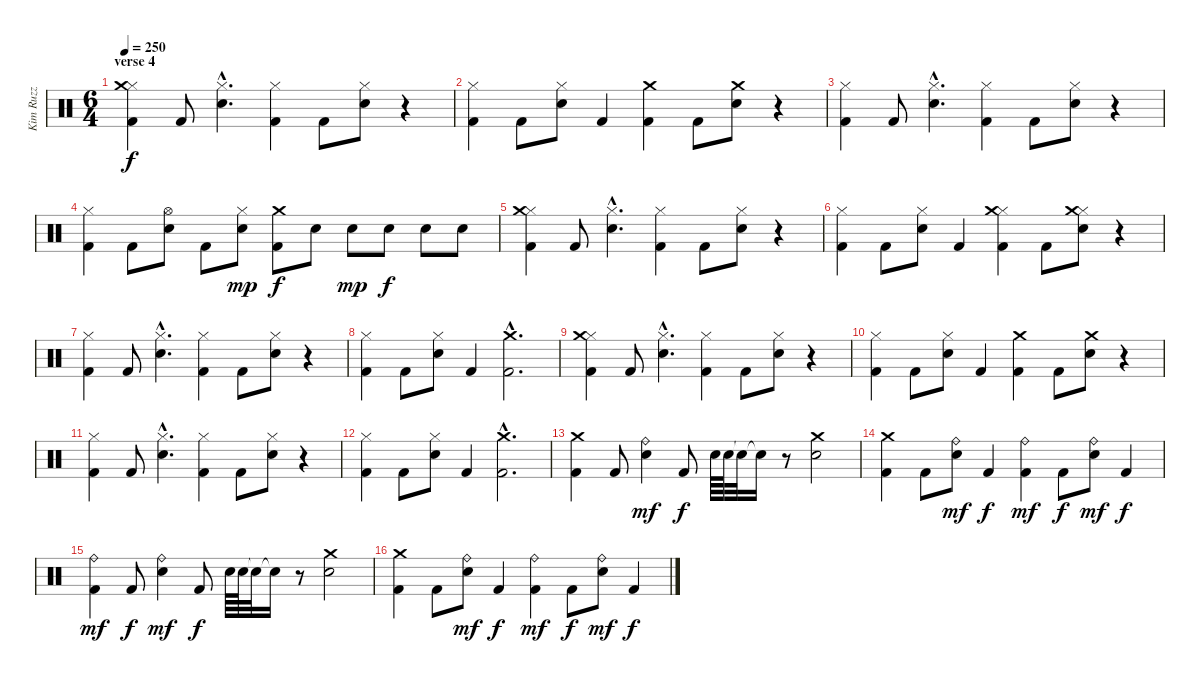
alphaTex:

\track ("Kim Ruzz" "Kim Ruzz") {instrument percussion}
\staff {score}
\articulation defaults
\ts (6 4)
\section ("" "verse 4")
\tempo 250
\clef neutral
\ks c
("Kick (hit) 2" "Hi-Hat (closed)" "Crash medium (hit)").4{dy f} "Kick (hit) 2".8 ("Hi-Hat (closed)"{hac} "Snare (hit) 2"{hac}).4{d} ("Kick (hit) 2" "Hi-Hat (closed)").4 "Kick (hit) 2".8 ("Hi-Hat (closed)" "Snare (hit) 2").8 r.4 |
("Kick (hit) 2" "Hi-Hat (closed)").4 "Kick (hit) 2".8 ("Hi-Hat (closed)" "Snare (hit) 2").8 "Kick (hit) 2".4 ("Kick (hit) 2" "Crash medium (hit)").4 "Kick (hit) 2".8 ("Crash medium (hit)" "Snare (hit) 2").8 r.4 |
("Kick (hit) 2" "Hi-Hat (closed)").4 "Kick (hit) 2".8 ("Hi-Hat (closed)"{hac} "Snare (hit) 2"{hac}).4{d} ("Kick (hit) 2" "Hi-Hat (closed)").4 "Kick (hit) 2".8 ("Hi-Hat (closed)" "Snare (hit) 2").8 r.4 |
("Kick (hit) 2" "Hi-Hat (closed)").4 "Kick (hit) 2".8 ("Hi-Hat (open)" "Snare (hit) 2").8 "Kick (hit) 2".8 ("Hi-Hat (closed)" "Snare (hit) 2").8{dy mp} ("Kick (hit) 2" "Crash medium (hit)").8{dy f} "Snare (hit) 2".8 "Snare (hit) 2".8{dy mp} "Snare (hit) 2".8{dy f} "Snare (hit) 2".8 "Snare (hit) 2".8 |
("Kick (hit) 2" "Hi-Hat (closed)" "Crash medium (hit)").4 "Kick (hit) 2".8 ("Hi-Hat (closed)"{hac} "Snare (hit) 2"{hac}).4{d} ("Kick (hit) 2" "Hi-Hat (closed)").4 "Kick (hit) 2".8 ("Hi-Hat (closed)" "Snare (hit) 2").8 r.4 |
("Kick (hit) 2" "Hi-Hat (closed)").4 "Kick (hit) 2".8 ("Hi-Hat (closed)" "Snare (hit) 2").8 "Kick (hit) 2".4 ("Kick (hit) 2" "Hi-Hat (closed)" "Crash medium (hit)").4 "Kick (hit) 2".8 ("Hi-Hat (closed)" "Crash medium (hit)" "Snare (hit) 2").8 r.4 |
("Kick (hit) 2" "Hi-Hat (closed)").4 "Kick (hit) 2".8 ("Hi-Hat (closed)"{hac} "Snare (hit) 2"{hac}).4{d} ("Kick (hit) 2" "Hi-Hat (closed)").4 "Kick (hit) 2".8 ("Hi-Hat (closed)" "Snare (hit) 2").8 r.4 |
("Kick (hit) 2" "Hi-Hat (closed)").4 "Kick (hit) 2".8 ("Hi-Hat (closed)" "Snare (hit) 2").8 "Kick (hit) 2".4 ("Kick (hit) 2"{hac} "Crash medium (hit)"{hac}).2{d} |
("Kick (hit) 2" "Hi-Hat (closed)" "Crash medium (hit)").4 "Kick (hit) 2".8 ("Hi-Hat (closed)"{hac} "Snare (hit) 2"{hac}).4{d} ("Kick (hit) 2" "Hi-Hat (closed)").4 "Kick (hit) 2".8 ("Hi-Hat (closed)" "Snare (hit) 2").8 r.4 |
("Kick (hit) 2" "Hi-Hat (closed)").4 "Kick (hit) 2".8 ("Hi-Hat (closed)" "Snare (hit) 2").8 "Kick (hit) 2".4 ("Kick (hit) 2" "Crash medium (hit)").4 "Kick (hit) 2".8 ("Crash medium (hit)" "Snare (hit) 2").8 r.4 |
("Kick (hit) 2" "Hi-Hat (closed)").4 "Kick (hit) 2".8 ("Hi-Hat (closed)"{hac} "Snare (hit) 2"{hac}).4{d} ("Kick (hit) 2" "Hi-Hat (closed)").4 "Kick (hit) 2".8 ("Hi-Hat (closed)" "Snare (hit) 2").8 r.4 |
("Kick (hit) 2" "Hi-Hat (closed)").4 "Kick (hit) 2".8 ("Hi-Hat (closed)" "Snare (hit) 2").8 "Kick (hit) 2".4 ("Kick (hit) 2"{hac} "Crash medium (hit)"{hac}).2{d} |
("Kick (hit) 2" "Crash medium (hit)").4 "Kick (hit) 2".8 ("Ride (bell)" "Snare (hit) 2").4{dy mf} "Kick (hit) 2".8{dy f} "Snare (hit) 2".64 "Snare (hit) 2".64 "Snare (hit)"{t}.32 "Snare (hit)"{t}.16 r.8 ("Crash medium (hit)" "Snare (hit) 2").2 |
("Kick (hit) 2" "Crash medium (hit)").4 "Kick (hit) 2".8 ("Ride (bell)" "Snare (hit) 2").8{dy mf} "Kick (hit) 2".4{dy f} ("Kick (hit) 2" "Ride (bell)").4{dy mf} "Kick (hit) 2".8{dy f} ("Ride (bell)" "Snare (hit) 2").8{dy mf} "Kick (hit) 2".4{dy f} |
("Kick (hit) 2" "Ride (bell)").4{dy mf} "Kick (hit) 2".8{dy f} ("Ride (bell)" "Snare (hit) 2").4{dy mf} "Kick (hit) 2".8{dy f} "Snare (hit) 2".64 "Snare (hit) 2".64 "Snare (hit)"{t}.32 "Snare (hit)"{t}.16 r.8 ("Crash medium (hit)" "Snare (hit) 2").2 |
("Kick (hit) 2" "Crash medium (hit)").4 "Kick (hit) 2".8 ("Ride (bell)" "Snare (hit) 2").8{dy mf} "Kick (hit) 2".4{dy f} ("Kick (hit) 2" "Ride (bell)").4{dy mf} "Kick (hit) 2".8{dy f} ("Ride (bell)" "Snare (hit) 2").8{dy mf} "Kick (hit) 2".4{dy f}
